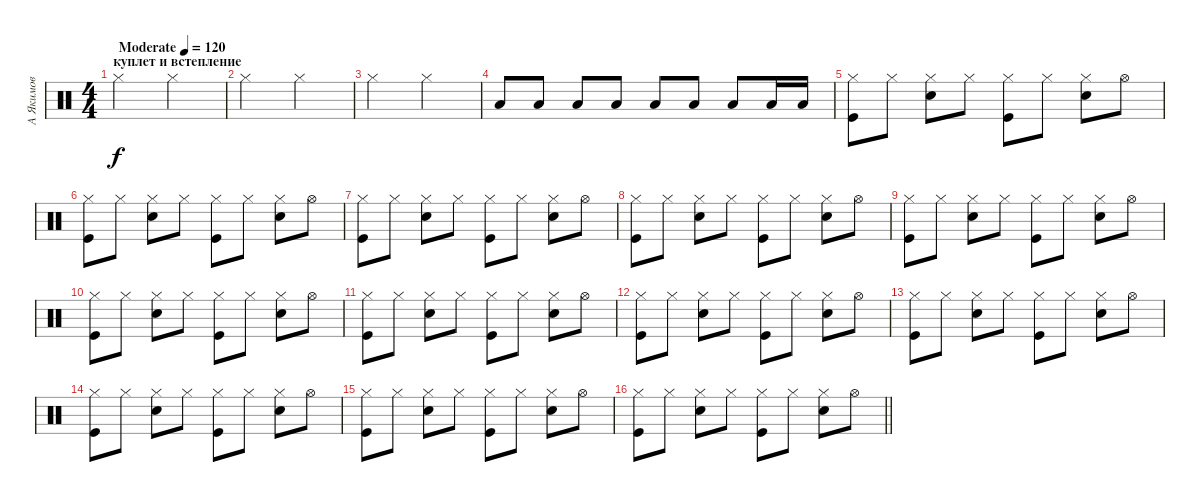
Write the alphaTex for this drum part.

\track ("А Якимов" "А Якимов") {instrument percussion}
\staff {score}
\articulation defaults
\ts (4 4)
\section ("" "куплет и встепление")
\tempo (120 "Moderate")
\clef neutral
\ks c "Hi-Hat (closed)".2{dy f} "Hi-Hat (closed)".2
|
"Hi-Hat (closed)".2 "Hi-Hat (closed)".2 |
"Hi-Hat (closed)".2 "Hi-Hat (closed)".2 |
"Low Tom (hit)".8 "Low Tom (hit)".8 "Low Tom (hit)".8 "Low Tom (hit)".8 "Low Tom (hit)".8 "Low Tom (hit)".8 "Low Tom (hit)".8 "Low Tom (hit)".16 "Low Tom (hit)".16 |
("Hi-Hat (closed)" "Kick (hit)").8 "Hi-Hat (closed)".8 ("Hi-Hat (closed)" "Snare (hit) 2").8 "Hi-Hat (closed)".8 ("Hi-Hat (closed)" "Kick (hit)").8 "Hi-Hat (closed)".8 ("Snare (hit) 2" "Hi-Hat (closed)").8 "Hi-Hat (open)".8 |
("Hi-Hat (closed)" "Kick (hit)").8 "Hi-Hat (closed)".8 ("Hi-Hat (closed)" "Snare (hit) 2").8 "Hi-Hat (closed)".8 ("Hi-Hat (closed)" "Kick (hit)").8 "Hi-Hat (closed)".8 ("Snare (hit) 2" "Hi-Hat (closed)").8 "Hi-Hat (open)".8 |
("Hi-Hat (closed)" "Kick (hit)").8 "Hi-Hat (closed)".8 ("Hi-Hat (closed)" "Snare (hit) 2").8 "Hi-Hat (closed)".8 ("Hi-Hat (closed)" "Kick (hit)").8 "Hi-Hat (closed)".8 ("Snare (hit) 2" "Hi-Hat (closed)").8 "Hi-Hat (open)".8 |
("Hi-Hat (closed)" "Kick (hit)").8 "Hi-Hat (closed)".8 ("Hi-Hat (closed)" "Snare (hit) 2").8 "Hi-Hat (closed)".8 ("Hi-Hat (closed)" "Kick (hit)").8 "Hi-Hat (closed)".8 ("Snare (hit) 2" "Hi-Hat (closed)").8 "Hi-Hat (open)".8 |
("Hi-Hat (closed)" "Kick (hit)").8 "Hi-Hat (closed)".8 ("Hi-Hat (closed)" "Snare (hit) 2").8 "Hi-Hat (closed)".8 ("Hi-Hat (closed)" "Kick (hit)").8 "Hi-Hat (closed)".8 ("Snare (hit) 2" "Hi-Hat (closed)").8 "Hi-Hat (open)".8 |
("Hi-Hat (closed)" "Kick (hit)").8 "Hi-Hat (closed)".8 ("Hi-Hat (closed)" "Snare (hit) 2").8 "Hi-Hat (closed)".8 ("Hi-Hat (closed)" "Kick (hit)").8 "Hi-Hat (closed)".8 ("Snare (hit) 2" "Hi-Hat (closed)").8 "Hi-Hat (open)".8 |
("Hi-Hat (closed)" "Kick (hit)").8 "Hi-Hat (closed)".8 ("Hi-Hat (closed)" "Snare (hit) 2").8 "Hi-Hat (closed)".8 ("Hi-Hat (closed)" "Kick (hit)").8 "Hi-Hat (closed)".8 ("Snare (hit) 2" "Hi-Hat (closed)").8 "Hi-Hat (open)".8 |
("Hi-Hat (closed)" "Kick (hit)").8 "Hi-Hat (closed)".8 ("Hi-Hat (closed)" "Snare (hit) 2").8 "Hi-Hat (closed)".8 ("Hi-Hat (closed)" "Kick (hit)").8 "Hi-Hat (closed)".8 ("Snare (hit) 2" "Hi-Hat (closed)").8 "Hi-Hat (open)".8 |
("Hi-Hat (closed)" "Kick (hit)").8 "Hi-Hat (closed)".8 ("Hi-Hat (closed)" "Snare (hit) 2").8 "Hi-Hat (closed)".8 ("Hi-Hat (closed)" "Kick (hit)").8 "Hi-Hat (closed)".8 ("Snare (hit) 2" "Hi-Hat (closed)").8 "Hi-Hat (open)".8 |
("Hi-Hat (closed)" "Kick (hit)").8 "Hi-Hat (closed)".8 ("Hi-Hat (closed)" "Snare (hit) 2").8 "Hi-Hat (closed)".8 ("Hi-Hat (closed)" "Kick (hit)").8 "Hi-Hat (closed)".8 ("Snare (hit) 2" "Hi-Hat (closed)").8 "Hi-Hat (open)".8 |
("Hi-Hat (closed)" "Kick (hit)").8 "Hi-Hat (closed)".8 ("Hi-Hat (closed)" "Snare (hit) 2").8 "Hi-Hat (closed)".8 ("Hi-Hat (closed)" "Kick (hit)").8 "Hi-Hat (closed)".8 ("Snare (hit) 2" "Hi-Hat (closed)").8 "Hi-Hat (open)".8 |
\barLineRight lightlight
("Hi-Hat (closed)" "Kick (hit)").8 "Hi-Hat (closed)".8 ("Hi-Hat (closed)" "Snare (hit) 2").8 "Hi-Hat (closed)".8 ("Hi-Hat (closed)" "Kick (hit)").8 "Hi-Hat (closed)".8 ("Snare (hit) 2" "Hi-Hat (closed)").8 "Hi-Hat (open)".8
